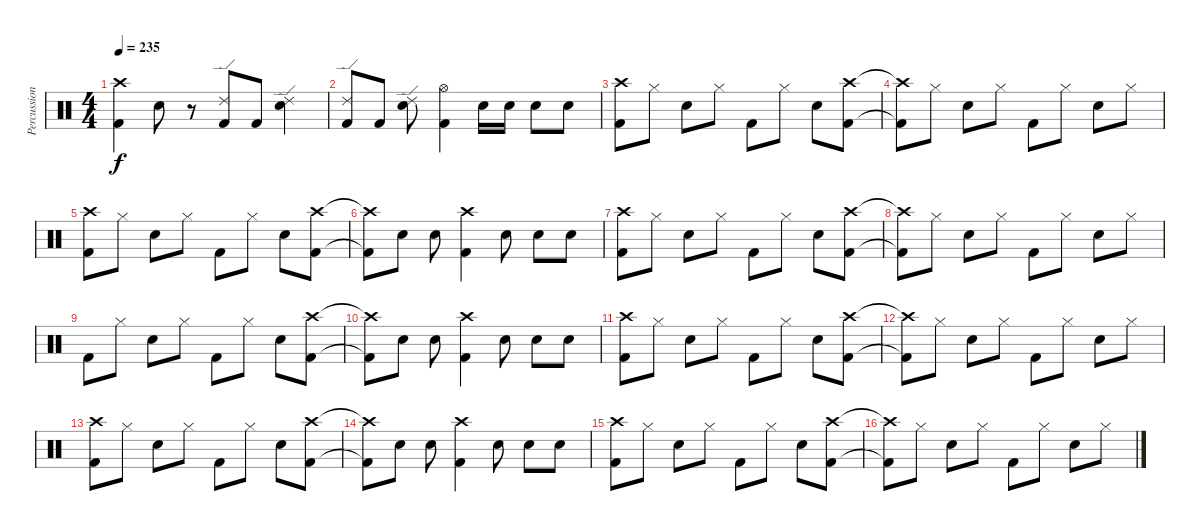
\track ("Percussion" "Percussion") {instrument percussion}
\staff {score}
\articulation defaults
\ts (4 4)
\tempo 235
\clef neutral
\ks c
("Crash high (hit)" "Kick (hit) 2").4{dy f} "Electric Snare (hit)".8 r.8 ("Ride (edge) 2" "Kick (hit) 2").8 "Kick (hit) 2".8 ("Ride (edge) 2" "Electric Snare (hit)").4 |
("Ride (edge) 2" "Kick (hit) 2").8 "Kick (hit) 2".8 ("Ride (edge) 2" "Electric Snare (hit)").8 ("Hi-Hat (open)" "Kick (hit) 2").4 "Snare (hit) 2".16 "Snare (hit) 2".16 "Snare (hit) 2".8 "Snare (hit) 2".8 |
("Crash high (hit)" "Kick (hit) 2").8 "Hi-Hat (closed)".8 "Snare (hit) 2".8 "Hi-Hat (closed)".8 "Kick (hit) 2".8 "Hi-Hat (closed)".8 "Snare (hit) 2".8 ("Crash high (hit)" "Kick (hit) 2").8 |
("Crash high (hit)"{t} "Kick (hit) 2"{t}).8 "Hi-Hat (closed)".8 "Snare (hit) 2".8 "Hi-Hat (closed)".8 "Kick (hit) 2".8 "Hi-Hat (closed)".8 "Snare (hit) 2".8 "Hi-Hat (closed)".8 |
("Crash high (hit)" "Kick (hit) 2").8 "Hi-Hat (closed)".8 "Snare (hit) 2".8 "Hi-Hat (closed)".8 "Kick (hit) 2".8 "Hi-Hat (closed)".8 "Snare (hit) 2".8 ("Crash high (hit)" "Kick (hit) 2").8 |
("Crash high (hit)"{t} "Kick (hit) 2"{t}).8 "Snare (hit) 2".8 "Snare (hit) 2".8 ("Crash high (hit)" "Kick (hit) 2").4 "Snare (hit) 2".8 "Snare (hit) 2".8 "Snare (hit) 2".8 |
("Crash high (hit)" "Kick (hit) 2").8 "Hi-Hat (closed)".8 "Snare (hit) 2".8 "Hi-Hat (closed)".8 "Kick (hit) 2".8 "Hi-Hat (closed)".8 "Snare (hit) 2".8 ("Crash high (hit)" "Kick (hit) 2").8 |
("Crash high (hit)"{t} "Kick (hit) 2"{t}).8 "Hi-Hat (closed)".8 "Snare (hit) 2".8 "Hi-Hat (closed)".8 "Kick (hit) 2".8 "Hi-Hat (closed)".8 "Snare (hit) 2".8 "Hi-Hat (closed)".8 |
"Kick (hit) 2".8 "Hi-Hat (closed)".8 "Snare (hit) 2".8 "Hi-Hat (closed)".8 "Kick (hit) 2".8 "Hi-Hat (closed)".8 "Snare (hit) 2".8 ("Crash high (hit)" "Kick (hit) 2").8 |
("Crash high (hit)"{t} "Kick (hit) 2"{t}).8 "Snare (hit) 2".8 "Snare (hit) 2".8 ("Crash high (hit)" "Kick (hit) 2").4 "Snare (hit) 2".8 "Snare (hit) 2".8 "Snare (hit) 2".8 |
("Crash high (hit)" "Kick (hit) 2").8 "Hi-Hat (closed)".8 "Snare (hit) 2".8 "Hi-Hat (closed)".8 "Kick (hit) 2".8 "Hi-Hat (closed)".8 "Snare (hit) 2".8 ("Crash high (hit)" "Kick (hit) 2").8 |
("Crash high (hit)"{t} "Kick (hit) 2"{t}).8 "Hi-Hat (closed)".8 "Snare (hit) 2".8 "Hi-Hat (closed)".8 "Kick (hit) 2".8 "Hi-Hat (closed)".8 "Snare (hit) 2".8 "Hi-Hat (closed)".8 |
("Crash high (hit)" "Kick (hit) 2").8 "Hi-Hat (closed)".8 "Snare (hit) 2".8 "Hi-Hat (closed)".8 "Kick (hit) 2".8 "Hi-Hat (closed)".8 "Snare (hit) 2".8 ("Crash high (hit)" "Kick (hit) 2").8 |
("Crash high (hit)"{t} "Kick (hit) 2"{t}).8 "Snare (hit) 2".8 "Snare (hit) 2".8 ("Crash high (hit)" "Kick (hit) 2").4 "Snare (hit) 2".8 "Snare (hit) 2".8 "Snare (hit) 2".8 |
("Crash high (hit)" "Kick (hit) 2").8 "Hi-Hat (closed)".8 "Snare (hit) 2".8 "Hi-Hat (closed)".8 "Kick (hit) 2".8 "Hi-Hat (closed)".8 "Snare (hit) 2".8 ("Crash high (hit)" "Kick (hit) 2").8 |
("Crash high (hit)"{t} "Kick (hit) 2"{t}).8 "Hi-Hat (closed)".8 "Snare (hit) 2".8 "Hi-Hat (closed)".8 "Kick (hit) 2".8 "Hi-Hat (closed)".8 "Snare (hit) 2".8 "Hi-Hat (closed)".8
